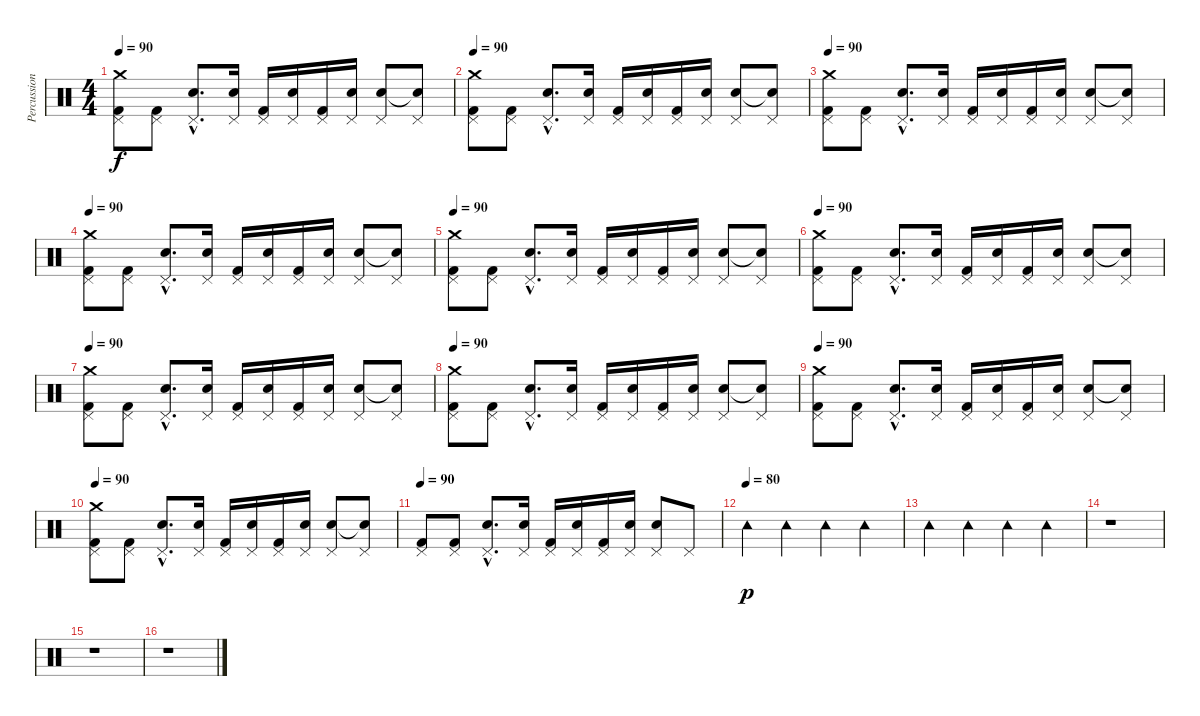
\track ("Percussions" "Percussion") {instrument percussion}
\staff {score}
\articulation defaults
\ts (4 4)
\tempo 100
\tempo 90
\clef neutral
\ks c
("Pedal Hi-Hat (hit)" "Kick (hit) 2" "Crash medium (hit)").8{dy f} ("Pedal Hi-Hat (hit)" "Kick (hit) 2").8 ("Pedal Hi-Hat (hit)"{hac} "Electric Snare (hit)"{hac}).8{d} ("Pedal Hi-Hat (hit)" "Electric Snare (hit)").16 ("Pedal Hi-Hat (hit)" "Kick (hit) 2").16 ("Pedal Hi-Hat (hit)" "Electric Snare (hit)").16 ("Pedal Hi-Hat (hit)" "Kick (hit) 2").16 ("Pedal Hi-Hat (hit)" "Electric Snare (hit)").16 ("Pedal Hi-Hat (hit)" "Electric Snare (hit)").8 ("Pedal Hi-Hat (hit)" "Snare (hit)"{t}).8 |
\tempo 90
("Pedal Hi-Hat (hit)" "Kick (hit) 2" "Crash medium (hit)").8 ("Pedal Hi-Hat (hit)" "Kick (hit) 2").8 ("Pedal Hi-Hat (hit)"{hac} "Electric Snare (hit)"{hac}).8{d} ("Pedal Hi-Hat (hit)" "Electric Snare (hit)").16 ("Pedal Hi-Hat (hit)" "Kick (hit) 2").16 ("Pedal Hi-Hat (hit)" "Electric Snare (hit)").16 ("Pedal Hi-Hat (hit)" "Kick (hit) 2").16 ("Pedal Hi-Hat (hit)" "Electric Snare (hit)").16 ("Pedal Hi-Hat (hit)" "Electric Snare (hit)").8 ("Pedal Hi-Hat (hit)" "Snare (hit)"{t}).8 |
\tempo 100
\tempo 90
("Pedal Hi-Hat (hit)" "Kick (hit) 2" "Crash medium (hit)").8 ("Pedal Hi-Hat (hit)" "Kick (hit) 2").8 ("Pedal Hi-Hat (hit)"{hac} "Electric Snare (hit)"{hac}).8{d} ("Pedal Hi-Hat (hit)" "Electric Snare (hit)").16 ("Pedal Hi-Hat (hit)" "Kick (hit) 2").16 ("Pedal Hi-Hat (hit)" "Electric Snare (hit)").16 ("Pedal Hi-Hat (hit)" "Kick (hit) 2").16 ("Pedal Hi-Hat (hit)" "Electric Snare (hit)").16 ("Pedal Hi-Hat (hit)" "Electric Snare (hit)").8 ("Pedal Hi-Hat (hit)" "Snare (hit)"{t}).8 |
\tempo 90
("Pedal Hi-Hat (hit)" "Kick (hit) 2" "Crash medium (hit)").8 ("Pedal Hi-Hat (hit)" "Kick (hit) 2").8 ("Pedal Hi-Hat (hit)"{hac} "Electric Snare (hit)"{hac}).8{d} ("Pedal Hi-Hat (hit)" "Electric Snare (hit)").16 ("Pedal Hi-Hat (hit)" "Kick (hit) 2").16 ("Pedal Hi-Hat (hit)" "Electric Snare (hit)").16 ("Pedal Hi-Hat (hit)" "Kick (hit) 2").16 ("Pedal Hi-Hat (hit)" "Electric Snare (hit)").16 ("Pedal Hi-Hat (hit)" "Electric Snare (hit)").8 ("Pedal Hi-Hat (hit)" "Snare (hit)"{t}).8 |
\tempo 100
\tempo 90
("Pedal Hi-Hat (hit)" "Kick (hit) 2" "Crash medium (hit)").8 ("Pedal Hi-Hat (hit)" "Kick (hit) 2").8 ("Pedal Hi-Hat (hit)"{hac} "Electric Snare (hit)"{hac}).8{d} ("Pedal Hi-Hat (hit)" "Electric Snare (hit)").16 ("Pedal Hi-Hat (hit)" "Kick (hit) 2").16 ("Pedal Hi-Hat (hit)" "Electric Snare (hit)").16 ("Pedal Hi-Hat (hit)" "Kick (hit) 2").16 ("Pedal Hi-Hat (hit)" "Electric Snare (hit)").16 ("Pedal Hi-Hat (hit)" "Electric Snare (hit)").8 ("Pedal Hi-Hat (hit)" "Snare (hit)"{t}).8 |
\tempo 90
("Pedal Hi-Hat (hit)" "Kick (hit) 2" "Crash medium (hit)").8 ("Pedal Hi-Hat (hit)" "Kick (hit) 2").8 ("Pedal Hi-Hat (hit)"{hac} "Electric Snare (hit)"{hac}).8{d} ("Pedal Hi-Hat (hit)" "Electric Snare (hit)").16 ("Pedal Hi-Hat (hit)" "Kick (hit) 2").16 ("Pedal Hi-Hat (hit)" "Electric Snare (hit)").16 ("Pedal Hi-Hat (hit)" "Kick (hit) 2").16 ("Pedal Hi-Hat (hit)" "Electric Snare (hit)").16 ("Pedal Hi-Hat (hit)" "Electric Snare (hit)").8 ("Pedal Hi-Hat (hit)" "Snare (hit)"{t}).8 |
\tempo 100
\tempo 90
("Pedal Hi-Hat (hit)" "Kick (hit) 2" "Crash medium (hit)").8 ("Pedal Hi-Hat (hit)" "Kick (hit) 2").8 ("Pedal Hi-Hat (hit)"{hac} "Electric Snare (hit)"{hac}).8{d} ("Pedal Hi-Hat (hit)" "Electric Snare (hit)").16 ("Pedal Hi-Hat (hit)" "Kick (hit) 2").16 ("Pedal Hi-Hat (hit)" "Electric Snare (hit)").16 ("Pedal Hi-Hat (hit)" "Kick (hit) 2").16 ("Pedal Hi-Hat (hit)" "Electric Snare (hit)").16 ("Pedal Hi-Hat (hit)" "Electric Snare (hit)").8 ("Pedal Hi-Hat (hit)" "Snare (hit)"{t}).8 |
\tempo 90
("Pedal Hi-Hat (hit)" "Kick (hit) 2" "Crash medium (hit)").8 ("Pedal Hi-Hat (hit)" "Kick (hit) 2").8 ("Pedal Hi-Hat (hit)"{hac} "Electric Snare (hit)"{hac}).8{d} ("Pedal Hi-Hat (hit)" "Electric Snare (hit)").16 ("Pedal Hi-Hat (hit)" "Kick (hit) 2").16 ("Pedal Hi-Hat (hit)" "Electric Snare (hit)").16 ("Pedal Hi-Hat (hit)" "Kick (hit) 2").16 ("Pedal Hi-Hat (hit)" "Electric Snare (hit)").16 ("Pedal Hi-Hat (hit)" "Electric Snare (hit)").8 ("Pedal Hi-Hat (hit)" "Snare (hit)"{t}).8 |
\tempo 100
\tempo 90
("Pedal Hi-Hat (hit)" "Kick (hit) 2" "Crash medium (hit)").8 ("Pedal Hi-Hat (hit)" "Kick (hit) 2").8 ("Pedal Hi-Hat (hit)"{hac} "Electric Snare (hit)"{hac}).8{d} ("Pedal Hi-Hat (hit)" "Electric Snare (hit)").16 ("Pedal Hi-Hat (hit)" "Kick (hit) 2").16 ("Pedal Hi-Hat (hit)" "Electric Snare (hit)").16 ("Pedal Hi-Hat (hit)" "Kick (hit) 2").16 ("Pedal Hi-Hat (hit)" "Electric Snare (hit)").16 ("Pedal Hi-Hat (hit)" "Electric Snare (hit)").8 ("Pedal Hi-Hat (hit)" "Snare (hit)"{t}).8 |
\tempo 90
("Pedal Hi-Hat (hit)" "Kick (hit) 2" "Crash medium (hit)").8 ("Pedal Hi-Hat (hit)" "Kick (hit) 2").8 ("Pedal Hi-Hat (hit)"{hac} "Electric Snare (hit)"{hac}).8{d} ("Pedal Hi-Hat (hit)" "Electric Snare (hit)").16 ("Pedal Hi-Hat (hit)" "Kick (hit) 2").16 ("Pedal Hi-Hat (hit)" "Electric Snare (hit)").16 ("Pedal Hi-Hat (hit)" "Kick (hit) 2").16 ("Pedal Hi-Hat (hit)" "Electric Snare (hit)").16 ("Pedal Hi-Hat (hit)" "Electric Snare (hit)").8 ("Pedal Hi-Hat (hit)" "Snare (hit)"{t}).8 |
\tempo 90
("Pedal Hi-Hat (hit)" "Kick (hit) 2").8 ("Pedal Hi-Hat (hit)" "Kick (hit) 2").8 ("Pedal Hi-Hat (hit)"{hac} "Electric Snare (hit)"{hac}).8{d} ("Pedal Hi-Hat (hit)" "Electric Snare (hit)").16 ("Pedal Hi-Hat (hit)" "Kick (hit) 2").16 ("Pedal Hi-Hat (hit)" "Electric Snare (hit)").16 ("Pedal Hi-Hat (hit)" "Kick (hit) 2").16 ("Pedal Hi-Hat (hit)" "Electric Snare (hit)").16 ("Pedal Hi-Hat (hit)" "Electric Snare (hit)").8 "Pedal Hi-Hat (hit)".8 |
\tempo (80)
"Tambourine (hit)".4{dy p} "Tambourine (hit)".4 "Tambourine (hit)".4 "Tambourine (hit)".4 |
"Tambourine (hit)".4 "Tambourine (hit)".4 "Tambourine (hit)".4 "Tambourine (hit)".4 |
r.1 |
r.1 |
r.1
